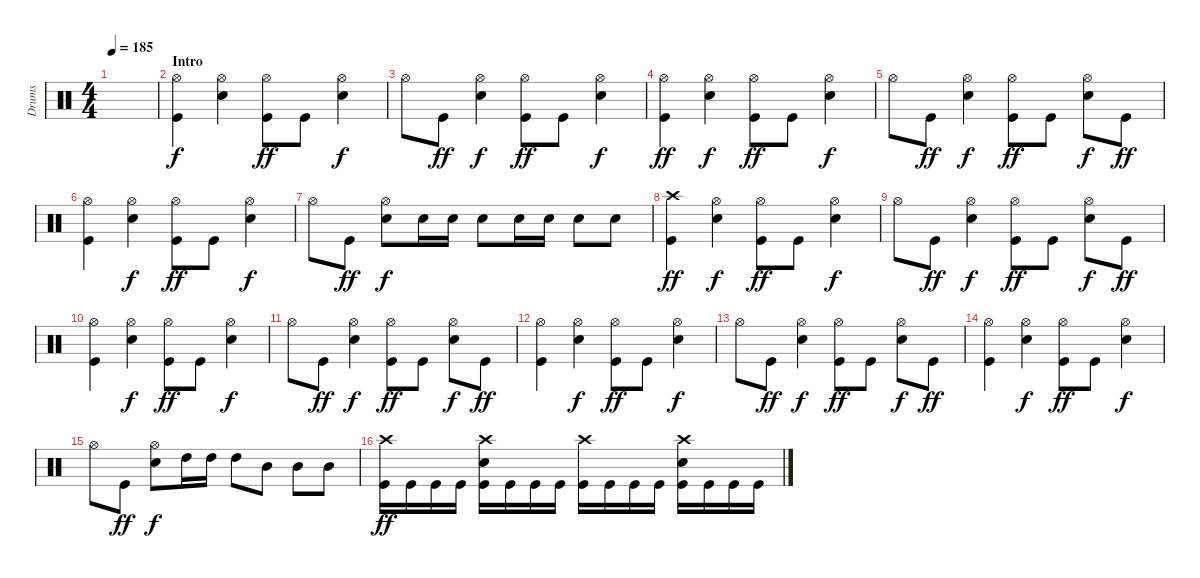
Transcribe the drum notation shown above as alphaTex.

\track ("Drums" "Drums") {instrument percussion}
\staff {score}
\articulation defaults
\ts (4 4)
\tempo 185
\clef neutral
\ks c
|
\section ("" "Intro")
("Hi-Hat (open)" "Kick (hit)").4 ("Hi-Hat (open)" "Snare (hit) 2").4{dy f} ("Hi-Hat (open)" "Kick (hit)").8{dy ff} "Kick (hit)".8 ("Hi-Hat (open)" "Snare (hit) 2").4{dy f} |
"Hi-Hat (open)".8 "Kick (hit)".8{dy ff} ("Hi-Hat (open)" "Snare (hit) 2").4{dy f} ("Hi-Hat (open)" "Kick (hit)").8{dy ff} "Kick (hit)".8 ("Hi-Hat (open)" "Snare (hit) 2").4{dy f} |
("Hi-Hat (open)" "Kick (hit)").4{dy ff} ("Hi-Hat (open)" "Snare (hit) 2").4{dy f} ("Hi-Hat (open)" "Kick (hit)").8{dy ff} "Kick (hit)".8 ("Hi-Hat (open)" "Snare (hit) 2").4{dy f} |
"Hi-Hat (open)".8 "Kick (hit)".8{dy ff} ("Hi-Hat (open)" "Snare (hit) 2").4{dy f} ("Hi-Hat (open)" "Kick (hit)").8{dy ff} "Kick (hit)".8 ("Hi-Hat (open)" "Snare (hit) 2").8{dy f} "Kick (hit)".8{dy ff} |
("Hi-Hat (open)" "Kick (hit)").4 ("Hi-Hat (open)" "Snare (hit) 2").4{dy f} ("Hi-Hat (open)" "Kick (hit)").8{dy ff} "Kick (hit)".8 ("Hi-Hat (open)" "Snare (hit) 2").4{dy f} |
"Hi-Hat (open)".8 "Kick (hit)".8{dy ff} ("Hi-Hat (open)" "Snare (hit) 2").8{dy f} "Snare (hit) 2".16 "Snare (hit) 2".16 "Snare (hit) 2".8 "Snare (hit) 2".16 "Snare (hit) 2".16 "Snare (hit) 2".8 "Snare (hit) 2".8 |
("Crash high (hit)" "Kick (hit)").4{dy ff} ("Hi-Hat (open)" "Snare (hit) 2").4{dy f} ("Hi-Hat (open)" "Kick (hit)").8{dy ff} "Kick (hit)".8 ("Hi-Hat (open)" "Snare (hit) 2").4{dy f} |
"Hi-Hat (open)".8 "Kick (hit)".8{dy ff} ("Hi-Hat (open)" "Snare (hit) 2").4{dy f} ("Hi-Hat (open)" "Kick (hit)").8{dy ff} "Kick (hit)".8 ("Hi-Hat (open)" "Snare (hit) 2").8{dy f} "Kick (hit)".8{dy ff} |
("Hi-Hat (open)" "Kick (hit)").4 ("Hi-Hat (open)" "Snare (hit) 2").4{dy f} ("Hi-Hat (open)" "Kick (hit)").8{dy ff} "Kick (hit)".8 ("Hi-Hat (open)" "Snare (hit) 2").4{dy f} |
"Hi-Hat (open)".8 "Kick (hit)".8{dy ff} ("Hi-Hat (open)" "Snare (hit) 2").4{dy f} ("Hi-Hat (open)" "Kick (hit)").8{dy ff} "Kick (hit)".8 ("Hi-Hat (open)" "Snare (hit) 2").8{dy f} "Kick (hit)".8{dy ff} |
("Hi-Hat (open)" "Kick (hit)").4 ("Hi-Hat (open)" "Snare (hit) 2").4{dy f} ("Hi-Hat (open)" "Kick (hit)").8{dy ff} "Kick (hit)".8 ("Hi-Hat (open)" "Snare (hit) 2").4{dy f} |
"Hi-Hat (open)".8 "Kick (hit)".8{dy ff} ("Hi-Hat (open)" "Snare (hit) 2").4{dy f} ("Hi-Hat (open)" "Kick (hit)").8{dy ff} "Kick (hit)".8 ("Hi-Hat (open)" "Snare (hit) 2").8{dy f} "Kick (hit)".8{dy ff} |
("Hi-Hat (open)" "Kick (hit)").4 ("Hi-Hat (open)" "Snare (hit) 2").4{dy f} ("Hi-Hat (open)" "Kick (hit)").8{dy ff} "Kick (hit)".8 ("Hi-Hat (open)" "Snare (hit) 2").4{dy f} |
"Hi-Hat (open)".8 "Kick (hit)".8{dy ff} ("Hi-Hat (open)" "Snare (hit) 2").8{dy f} "High Tom (hit)".16 "High Tom (hit)".16 "High Tom (hit)".8 "Mid Tom (hit)".8 "Mid Tom (hit)".8 "Mid Tom (hit)".8 |
("Crash high (hit)" "Kick (hit)").16{dy ff} "Kick (hit)".16 "Kick (hit)".16 "Kick (hit)".16 ("Crash high (hit)" "Snare (hit) 2" "Kick (hit)").16 "Kick (hit)".16 "Kick (hit)".16 "Kick (hit)".16 ("Crash high (hit)" "Kick (hit)").16 "Kick (hit)".16 "Kick (hit)".16 "Kick (hit)".16 ("Crash high (hit)" "Snare (hit) 2" "Kick (hit)").16 "Kick (hit)".16 "Kick (hit)".16 "Kick (hit)".16
